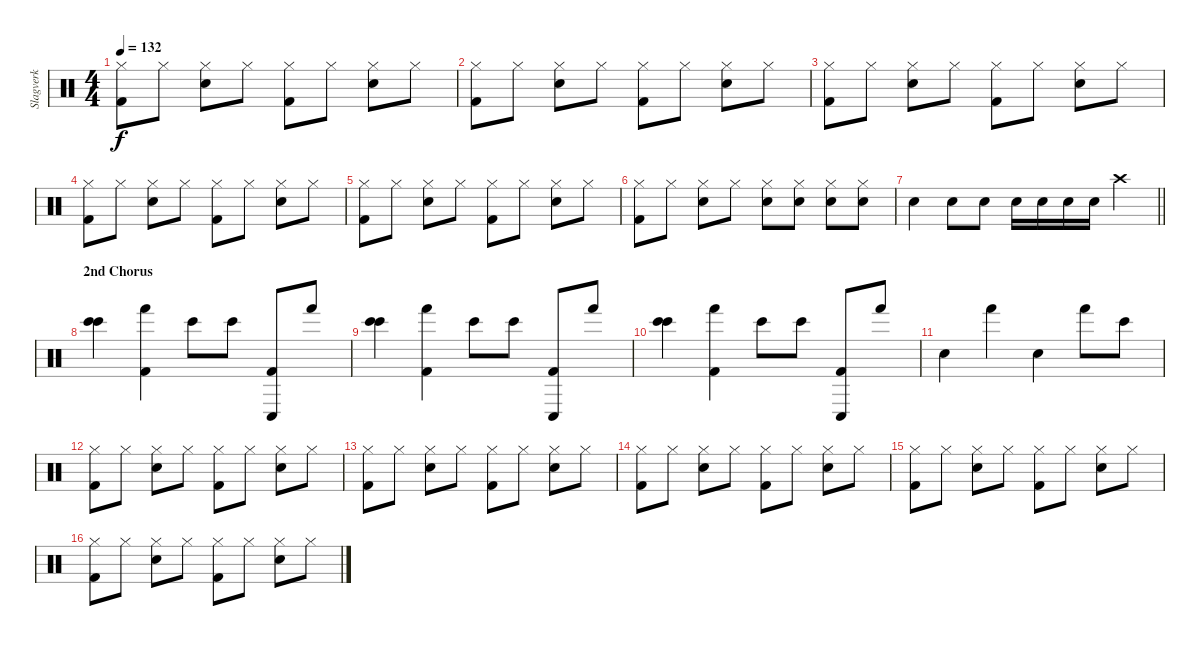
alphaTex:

\track ("Slagverk" "Slagverk") {instrument percussion}
\staff {score}
\articulation defaults
\ts (4 4)
\tempo 132
\clef neutral
\ks c
("Kick (hit) 2" "Hi-Hat (closed)").8{dy f} "Hi-Hat (closed)".8 ("Snare (hit) 2" "Hi-Hat (closed)").8 "Hi-Hat (closed)".8 ("Kick (hit) 2" "Hi-Hat (closed)").8 "Hi-Hat (closed)".8 ("Snare (hit) 2" "Hi-Hat (closed)").8 "Hi-Hat (closed)".8 |
("Kick (hit) 2" "Hi-Hat (closed)").8 "Hi-Hat (closed)".8 ("Snare (hit) 2" "Hi-Hat (closed)").8 "Hi-Hat (closed)".8 ("Kick (hit) 2" "Hi-Hat (closed)").8 "Hi-Hat (closed)".8 ("Snare (hit) 2" "Hi-Hat (closed)").8 "Hi-Hat (closed)".8 |
("Kick (hit) 2" "Hi-Hat (closed)").8 "Hi-Hat (closed)".8 ("Snare (hit) 2" "Hi-Hat (closed)").8 "Hi-Hat (closed)".8 ("Kick (hit) 2" "Hi-Hat (closed)").8 "Hi-Hat (closed)".8 ("Snare (hit) 2" "Hi-Hat (closed)").8 "Hi-Hat (closed)".8 |
("Kick (hit) 2" "Hi-Hat (closed)").8 "Hi-Hat (closed)".8 ("Snare (hit) 2" "Hi-Hat (closed)").8 "Hi-Hat (closed)".8 ("Kick (hit) 2" "Hi-Hat (closed)").8 "Hi-Hat (closed)".8 ("Snare (hit) 2" "Hi-Hat (closed)").8 "Hi-Hat (closed)".8 |
("Kick (hit) 2" "Hi-Hat (closed)").8 "Hi-Hat (closed)".8 ("Snare (hit) 2" "Hi-Hat (closed)").8 "Hi-Hat (closed)".8 ("Kick (hit) 2" "Hi-Hat (closed)").8 "Hi-Hat (closed)".8 ("Snare (hit) 2" "Hi-Hat (closed)").8 "Hi-Hat (closed)".8 |
("Kick (hit) 2" "Hi-Hat (closed)").8 "Hi-Hat (closed)".8 ("Snare (hit) 2" "Hi-Hat (closed)").8 "Hi-Hat (closed)".8 ("Snare (hit) 2" "Hi-Hat (closed)").8 ("Snare (hit) 2" "Hi-Hat (closed)").8 ("Snare (hit) 2" "Hi-Hat (closed)").8 ("Snare (hit) 2" "Hi-Hat (closed)").8 |
\barLineRight lightlight "Snare (hit) 2".4 "Snare (hit) 2".8 "Snare (hit) 2".8 "Snare (hit) 2".16 "Snare (hit) 2".16 "Snare (hit) 2".16 "Snare (hit) 2".16 "Crash high (hit)".4
|
\section ("" "2nd Chorus")
("Bongo High (hit)" "Bongo High (hit)").4 ("Kick (hit) 2" "Hand (hit)").4 "Bongo High (hit)".8 "Bongo High (hit)".8 ("Kick (hit) 2" "Conga low (hit)").8 "Hand (hit)".8 |
("Bongo High (hit)" "Bongo High (hit)").4 ("Kick (hit) 2" "Hand (hit)").4 "Bongo High (hit)".8 "Bongo High (hit)".8 ("Kick (hit) 2" "Conga low (hit)").8 "Hand (hit)".8 |
("Bongo High (hit)" "Bongo High (hit)").4 ("Kick (hit) 2" "Hand (hit)").4 "Bongo High (hit)".8 "Bongo High (hit)".8 ("Kick (hit) 2" "Conga low (hit)").8 "Hand (hit)".8 |
"Snare (hit) 2".4 "Hand (hit)".4 "Snare (hit) 2".4 "Hand (hit)".8 "Bongo High (hit)".8 |
("Kick (hit) 2" "Hi-Hat (closed)").8 "Hi-Hat (closed)".8 ("Snare (hit) 2" "Hi-Hat (closed)").8 "Hi-Hat (closed)".8 ("Kick (hit) 2" "Hi-Hat (closed)").8 "Hi-Hat (closed)".8 ("Snare (hit) 2" "Hi-Hat (closed)").8 "Hi-Hat (closed)".8 |
("Kick (hit) 2" "Hi-Hat (closed)").8 "Hi-Hat (closed)".8 ("Snare (hit) 2" "Hi-Hat (closed)").8 "Hi-Hat (closed)".8 ("Kick (hit) 2" "Hi-Hat (closed)").8 "Hi-Hat (closed)".8 ("Snare (hit) 2" "Hi-Hat (closed)").8 "Hi-Hat (closed)".8 |
("Kick (hit) 2" "Hi-Hat (closed)").8 "Hi-Hat (closed)".8 ("Snare (hit) 2" "Hi-Hat (closed)").8 "Hi-Hat (closed)".8 ("Kick (hit) 2" "Hi-Hat (closed)").8 "Hi-Hat (closed)".8 ("Snare (hit) 2" "Hi-Hat (closed)").8 "Hi-Hat (closed)".8 |
("Kick (hit) 2" "Hi-Hat (closed)").8 "Hi-Hat (closed)".8 ("Snare (hit) 2" "Hi-Hat (closed)").8 "Hi-Hat (closed)".8 ("Kick (hit) 2" "Hi-Hat (closed)").8 "Hi-Hat (closed)".8 ("Snare (hit) 2" "Hi-Hat (closed)").8 "Hi-Hat (closed)".8 |
("Kick (hit) 2" "Hi-Hat (closed)").8 "Hi-Hat (closed)".8 ("Snare (hit) 2" "Hi-Hat (closed)").8 "Hi-Hat (closed)".8 ("Kick (hit) 2" "Hi-Hat (closed)").8 "Hi-Hat (closed)".8 ("Snare (hit) 2" "Hi-Hat (closed)").8 "Hi-Hat (closed)".8
